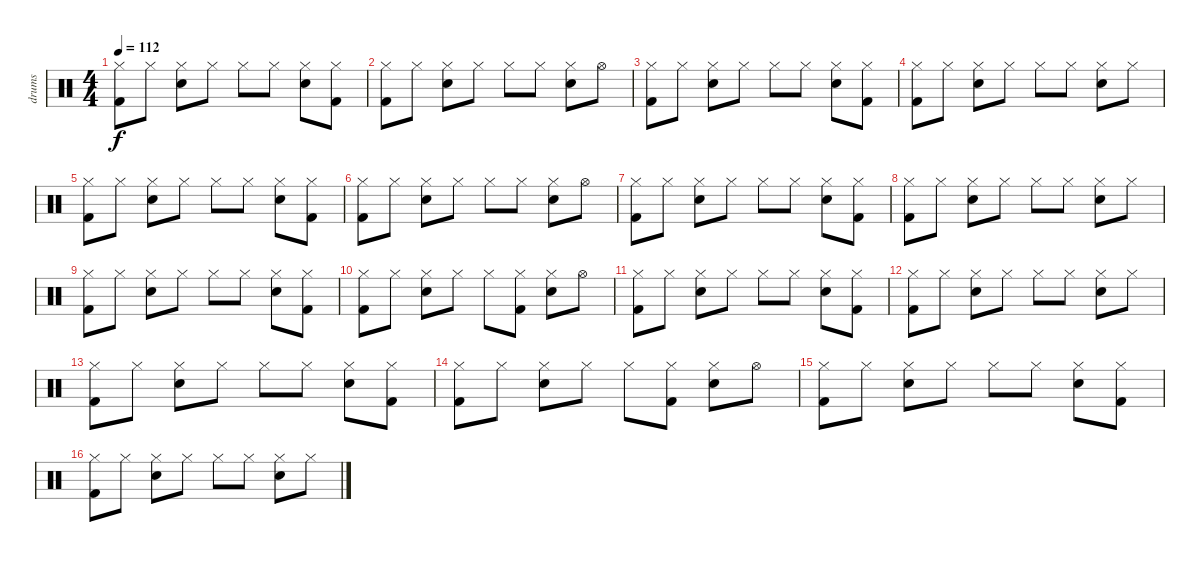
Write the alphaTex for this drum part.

\track ("drums" "drums") {instrument percussion}
\staff {score}
\articulation defaults
\ts (4 4)
\tempo 112
\clef neutral
\ks c
("Hi-Hat (closed)" "Kick (hit) 2").8{dy f} "Hi-Hat (closed)".8 ("Hi-Hat (closed)" "Snare (hit) 2").8 "Hi-Hat (closed)".8 "Hi-Hat (closed)".8 "Hi-Hat (closed)".8 ("Hi-Hat (closed)" "Snare (hit) 2").8 ("Hi-Hat (closed)" "Kick (hit) 2").8 |
("Hi-Hat (closed)" "Kick (hit) 2").8 "Hi-Hat (closed)".8 ("Hi-Hat (closed)" "Snare (hit) 2").8 "Hi-Hat (closed)".8 "Hi-Hat (closed)".8 "Hi-Hat (closed)".8 ("Hi-Hat (closed)" "Snare (hit) 2").8 "Hi-Hat (open)".8 |
("Hi-Hat (closed)" "Kick (hit) 2").8 "Hi-Hat (closed)".8 ("Hi-Hat (closed)" "Snare (hit) 2").8 "Hi-Hat (closed)".8 "Hi-Hat (closed)".8 "Hi-Hat (closed)".8 ("Hi-Hat (closed)" "Snare (hit) 2").8 ("Hi-Hat (closed)" "Kick (hit) 2").8 |
("Hi-Hat (closed)" "Kick (hit) 2").8 "Hi-Hat (closed)".8 ("Hi-Hat (closed)" "Snare (hit) 2").8 "Hi-Hat (closed)".8 "Hi-Hat (closed)".8 "Hi-Hat (closed)".8 ("Hi-Hat (closed)" "Snare (hit) 2").8 "Hi-Hat (closed)".8 |
("Hi-Hat (closed)" "Kick (hit) 2").8 "Hi-Hat (closed)".8 ("Hi-Hat (closed)" "Snare (hit) 2").8 "Hi-Hat (closed)".8 "Hi-Hat (closed)".8 "Hi-Hat (closed)".8 ("Hi-Hat (closed)" "Snare (hit) 2").8 ("Hi-Hat (closed)" "Kick (hit) 2").8 |
("Hi-Hat (closed)" "Kick (hit) 2").8 "Hi-Hat (closed)".8 ("Hi-Hat (closed)" "Snare (hit) 2").8 "Hi-Hat (closed)".8 "Hi-Hat (closed)".8 "Hi-Hat (closed)".8 ("Hi-Hat (closed)" "Snare (hit) 2").8 "Hi-Hat (open)".8 |
("Hi-Hat (closed)" "Kick (hit) 2").8 "Hi-Hat (closed)".8 ("Hi-Hat (closed)" "Snare (hit) 2").8 "Hi-Hat (closed)".8 "Hi-Hat (closed)".8 "Hi-Hat (closed)".8 ("Hi-Hat (closed)" "Snare (hit) 2").8 ("Hi-Hat (closed)" "Kick (hit) 2").8 |
("Hi-Hat (closed)" "Kick (hit) 2").8 "Hi-Hat (closed)".8 ("Hi-Hat (closed)" "Snare (hit) 2").8 "Hi-Hat (closed)".8 "Hi-Hat (closed)".8 "Hi-Hat (closed)".8 ("Hi-Hat (closed)" "Snare (hit) 2").8 "Hi-Hat (closed)".8 |
("Hi-Hat (closed)" "Kick (hit) 2").8 "Hi-Hat (closed)".8 ("Hi-Hat (closed)" "Snare (hit) 2").8 "Hi-Hat (closed)".8 "Hi-Hat (closed)".8 "Hi-Hat (closed)".8 ("Hi-Hat (closed)" "Snare (hit) 2").8 ("Hi-Hat (closed)" "Kick (hit) 2").8 |
("Hi-Hat (closed)" "Kick (hit) 2").8 "Hi-Hat (closed)".8 ("Hi-Hat (closed)" "Snare (hit) 2").8 "Hi-Hat (closed)".8 "Hi-Hat (closed)".8 ("Hi-Hat (closed)" "Kick (hit) 2").8 ("Hi-Hat (closed)" "Snare (hit) 2").8 "Hi-Hat (open)".8 |
("Hi-Hat (closed)" "Kick (hit) 2").8 "Hi-Hat (closed)".8 ("Hi-Hat (closed)" "Snare (hit) 2").8 "Hi-Hat (closed)".8 "Hi-Hat (closed)".8 "Hi-Hat (closed)".8 ("Hi-Hat (closed)" "Snare (hit) 2").8 ("Hi-Hat (closed)" "Kick (hit) 2").8 |
("Hi-Hat (closed)" "Kick (hit) 2").8 "Hi-Hat (closed)".8 ("Hi-Hat (closed)" "Snare (hit) 2").8 "Hi-Hat (closed)".8 "Hi-Hat (closed)".8 "Hi-Hat (closed)".8 ("Hi-Hat (closed)" "Snare (hit) 2").8 "Hi-Hat (closed)".8 |
("Hi-Hat (closed)" "Kick (hit) 2").8 "Hi-Hat (closed)".8 ("Hi-Hat (closed)" "Snare (hit) 2").8 "Hi-Hat (closed)".8 "Hi-Hat (closed)".8 "Hi-Hat (closed)".8 ("Hi-Hat (closed)" "Snare (hit) 2").8 ("Hi-Hat (closed)" "Kick (hit) 2").8 |
("Hi-Hat (closed)" "Kick (hit) 2").8 "Hi-Hat (closed)".8 ("Hi-Hat (closed)" "Snare (hit) 2").8 "Hi-Hat (closed)".8 "Hi-Hat (closed)".8 ("Hi-Hat (closed)" "Kick (hit) 2").8 ("Hi-Hat (closed)" "Snare (hit) 2").8 "Hi-Hat (open)".8 |
("Hi-Hat (closed)" "Kick (hit) 2").8 "Hi-Hat (closed)".8 ("Hi-Hat (closed)" "Snare (hit) 2").8 "Hi-Hat (closed)".8 "Hi-Hat (closed)".8 "Hi-Hat (closed)".8 ("Hi-Hat (closed)" "Snare (hit) 2").8 ("Hi-Hat (closed)" "Kick (hit) 2").8 |
("Hi-Hat (closed)" "Kick (hit) 2").8 "Hi-Hat (closed)".8 ("Hi-Hat (closed)" "Snare (hit) 2").8 "Hi-Hat (closed)".8 "Hi-Hat (closed)".8 "Hi-Hat (closed)".8 ("Hi-Hat (closed)" "Snare (hit) 2").8 "Hi-Hat (closed)".8
